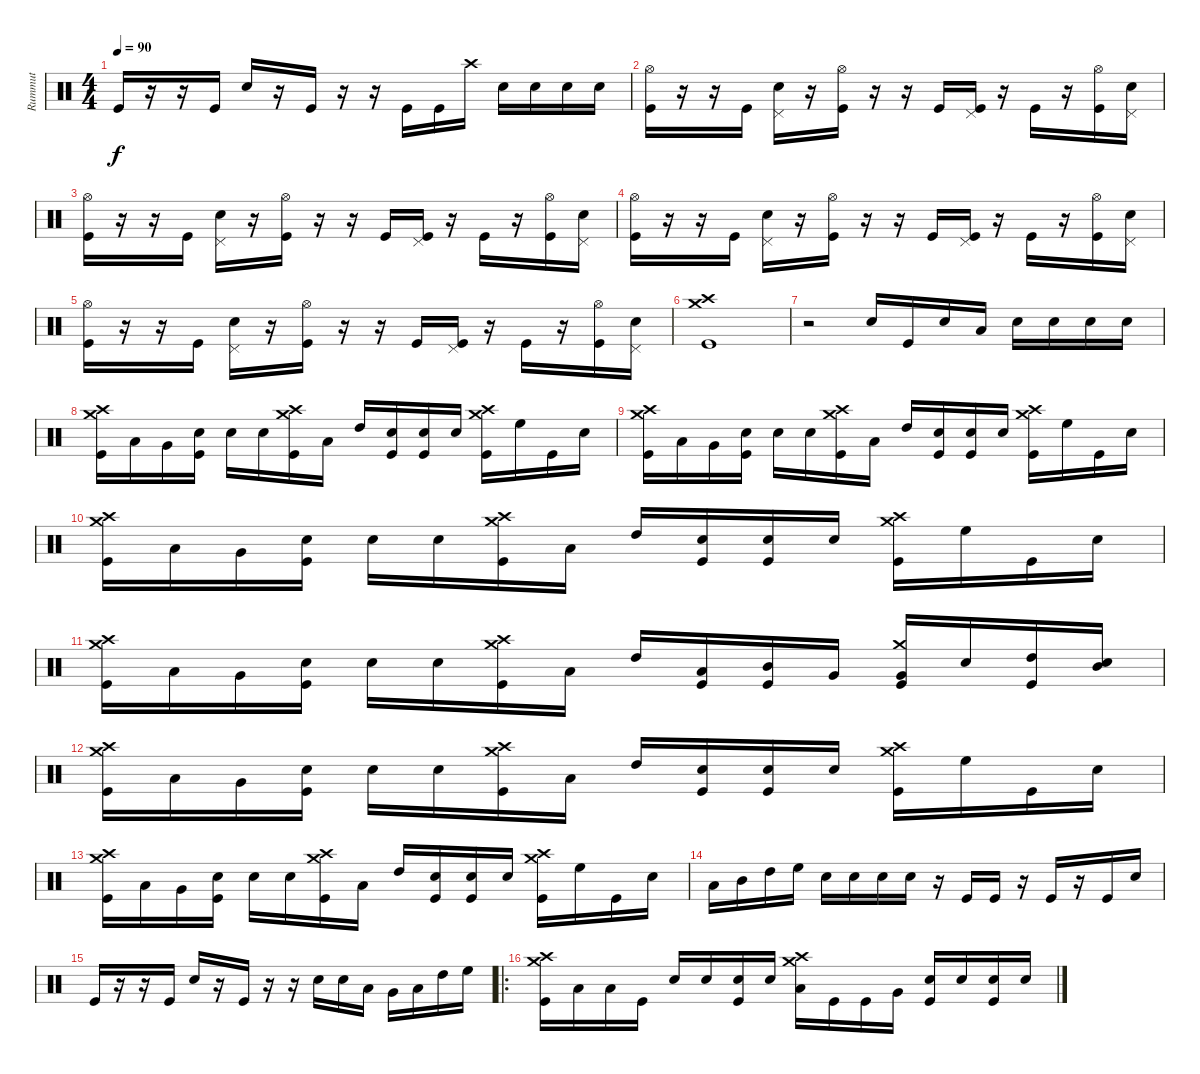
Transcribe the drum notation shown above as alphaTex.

\track ("Rummut" "Rummut") {instrument percussion}
\staff {score}
\articulation defaults
\ts (4 4)
\tempo 90
\clef neutral
\ks c "Kick (hit)".16{dy f}
r.16 r.16 "Kick (hit)".16 "Snare (hit) 2".16 r.16 "Kick (hit)".16 r.16 r.16 "Kick (hit)".16 "Kick (hit)".16 "Crash high (hit)".16 "Snare (hit) 2".16 "Snare (hit) 2".16 "Snare (hit) 2".16 "Snare (hit) 2".16 |
("Hi-Hat (open)" "Kick (hit)").16 r.16 r.16 "Kick (hit)".16 ("Pedal Hi-Hat (hit)" "Snare (hit) 2").16 r.16 ("Hi-Hat (open)" "Kick (hit)").16 r.16 r.16 "Kick (hit)".16 ("Pedal Hi-Hat (hit)" "Kick (hit)").16 r.16 "Kick (hit)".16 r.16 ("Hi-Hat (open)" "Kick (hit)").16 ("Pedal Hi-Hat (hit)" "Snare (hit) 2").16 |
("Hi-Hat (open)" "Kick (hit)").16 r.16 r.16 "Kick (hit)".16 ("Pedal Hi-Hat (hit)" "Snare (hit) 2").16 r.16 ("Hi-Hat (open)" "Kick (hit)").16 r.16 r.16 "Kick (hit)".16 ("Pedal Hi-Hat (hit)" "Kick (hit)").16 r.16 "Kick (hit)".16 r.16 ("Hi-Hat (open)" "Kick (hit)").16 ("Pedal Hi-Hat (hit)" "Snare (hit) 2").16 |
("Hi-Hat (open)" "Kick (hit)").16 r.16 r.16 "Kick (hit)".16 ("Pedal Hi-Hat (hit)" "Snare (hit) 2").16 r.16 ("Hi-Hat (open)" "Kick (hit)").16 r.16 r.16 "Kick (hit)".16 ("Pedal Hi-Hat (hit)" "Kick (hit)").16 r.16 "Kick (hit)".16 r.16 ("Hi-Hat (open)" "Kick (hit)").16 ("Pedal Hi-Hat (hit)" "Snare (hit) 2").16 |
("Hi-Hat (open)" "Kick (hit)").16 r.16 r.16 "Kick (hit)".16 ("Pedal Hi-Hat (hit)" "Snare (hit) 2").16 r.16 ("Hi-Hat (open)" "Kick (hit)").16 r.16 r.16 "Kick (hit)".16 ("Pedal Hi-Hat (hit)" "Kick (hit)").16 r.16 "Kick (hit)".16 r.16 ("Hi-Hat (open)" "Kick (hit)").16 ("Pedal Hi-Hat (hit)" "Snare (hit) 2").16 |
("Crash medium (hit)" "Crash high (hit)" "Kick (hit)").1 |
r.2 "Snare (hit) 2".16 "Kick (hit)".16 "Snare (hit) 2".16 "Low Floor Tom (hit)".16 "Snare (hit) 2".16 "Snare (hit) 2".16 "Snare (hit) 2".16 "Snare (hit) 2".16 |
("Crash medium (hit)" "Crash high (hit)" "Kick (hit)").16 "Low Floor Tom (hit)".16 "Very Low Tom (hit)".16 ("Snare (hit) 2" "Kick (hit)").16 "Snare (hit) 2".16 "Snare (hit) 2".16 ("Crash medium (hit)" "Crash high (hit)" "Kick (hit)").16 "Low Tom (hit)".16 "High Tom (hit)".16 ("Snare (hit) 2" "Kick (hit)").16 ("Snare (hit) 2" "Kick (hit)").16 "Snare (hit) 2".16 ("Crash medium (hit)" "Crash high (hit)" "Kick (hit)").16 "High Floor Tom (hit)".16 "Kick (hit)".16 "Snare (hit) 2".16 |
("Crash medium (hit)" "Crash high (hit)" "Kick (hit)").16 "Low Floor Tom (hit)".16 "Very Low Tom (hit)".16 ("Snare (hit) 2" "Kick (hit)").16 "Snare (hit) 2".16 "Snare (hit) 2".16 ("Crash medium (hit)" "Crash high (hit)" "Kick (hit)").16 "Low Tom (hit)".16 "High Tom (hit)".16 ("Snare (hit) 2" "Kick (hit)").16 ("Snare (hit) 2" "Kick (hit)").16 "Snare (hit) 2".16 ("Crash medium (hit)" "Crash high (hit)" "Kick (hit)").16 "High Floor Tom (hit)".16 "Kick (hit)".16 "Snare (hit) 2".16 |
("Crash medium (hit)" "Crash high (hit)" "Kick (hit)").16 "Low Floor Tom (hit)".16 "Very Low Tom (hit)".16 ("Snare (hit) 2" "Kick (hit)").16 "Snare (hit) 2".16 "Snare (hit) 2".16 ("Crash medium (hit)" "Crash high (hit)" "Kick (hit)").16 "Low Tom (hit)".16 "High Tom (hit)".16 ("Snare (hit) 2" "Kick (hit)").16 ("Snare (hit) 2" "Kick (hit)").16 "Snare (hit) 2".16 ("Crash medium (hit)" "Crash high (hit)" "Kick (hit)").16 "High Floor Tom (hit)".16 "Kick (hit)".16 "Snare (hit) 2".16 |
("Crash medium (hit)" "Crash high (hit)" "Kick (hit)").16 "Low Floor Tom (hit)".16 "Very Low Tom (hit)".16 ("Snare (hit) 2" "Kick (hit)").16 "Snare (hit) 2".16 "Snare (hit) 2".16 ("Crash medium (hit)" "Crash high (hit)" "Kick (hit)").16 "Low Tom (hit)".16 "High Tom (hit)".16 ("Low Tom (hit)" "Kick (hit)").16 ("Mid Tom (hit)" "Kick (hit)").16 "Very Low Tom (hit)".16 ("Crash medium (hit)" "Very Low Tom (hit)" "Kick (hit)").16 "Snare (hit) 2".16 ("High Tom (hit)" "Kick (hit)").16 ("Mid Tom (hit)" "Snare (hit) 2").16 |
("Crash medium (hit)" "Crash high (hit)" "Kick (hit)").16 "Low Floor Tom (hit)".16 "Very Low Tom (hit)".16 ("Snare (hit) 2" "Kick (hit)").16 "Snare (hit) 2".16 "Snare (hit) 2".16 ("Crash medium (hit)" "Crash high (hit)" "Kick (hit)").16 "Low Tom (hit)".16 "High Tom (hit)".16 ("Snare (hit) 2" "Kick (hit)").16 ("Snare (hit) 2" "Kick (hit)").16 "Snare (hit) 2".16 ("Crash medium (hit)" "Crash high (hit)" "Kick (hit)").16 "High Floor Tom (hit)".16 "Kick (hit)".16 "Snare (hit) 2".16 |
("Crash medium (hit)" "Crash high (hit)" "Kick (hit)").16 "Low Floor Tom (hit)".16 "Very Low Tom (hit)".16 ("Snare (hit) 2" "Kick (hit)").16 "Snare (hit) 2".16 "Snare (hit) 2".16 ("Crash medium (hit)" "Crash high (hit)" "Kick (hit)").16 "Low Tom (hit)".16 "High Tom (hit)".16 ("Snare (hit) 2" "Kick (hit)").16 ("Snare (hit) 2" "Kick (hit)").16 "Snare (hit) 2".16 ("Crash medium (hit)" "Crash high (hit)" "Kick (hit)").16 "High Floor Tom (hit)".16 "Kick (hit)".16 "Snare (hit) 2".16 |
"Low Tom (hit)".16 "Mid Tom (hit)".16 "High Tom (hit)".16 "High Floor Tom (hit)".16 "Snare (hit) 2".16 "Snare (hit) 2".16 "Snare (hit) 2".16 "Snare (hit) 2".16 r.16 "Kick (hit)".16 "Kick (hit)".16 r.16 "Kick (hit)".16 r.16 "Kick (hit)".16 "Snare (hit) 2".16 |
"Kick (hit)".16 r.16 r.16 "Kick (hit)".16 "Snare (hit) 2".16 r.16 "Kick (hit)".16 r.16 r.16 "Snare (hit) 2".16 "Snare (hit) 2".16 "Low Floor Tom (hit)".16 "Very Low Tom (hit)".16 "Low Tom (hit)".16 "High Tom (hit)".16 "High Floor Tom (hit)".16 |
\ro
("Crash medium (hit)" "Crash high (hit)" "Kick (hit)").16 "Low Tom (hit)".16 "Low Floor Tom (hit)".16 "Kick (hit)".16 "Snare (hit) 2".16 "Snare (hit) 2".16 ("Snare (hit) 2" "Kick (hit)").16 "Snare (hit) 2".16 ("Crash medium (hit)" "Crash high (hit)" "Low Floor Tom (hit)").16 "Kick (hit)".16 "Kick (hit)".16 "Very Low Tom (hit)".16 ("Snare (hit) 2" "Kick (hit)").16 "Snare (hit) 2".16 ("Snare (hit) 2" "Kick (hit)").16 "Snare (hit) 2".16
